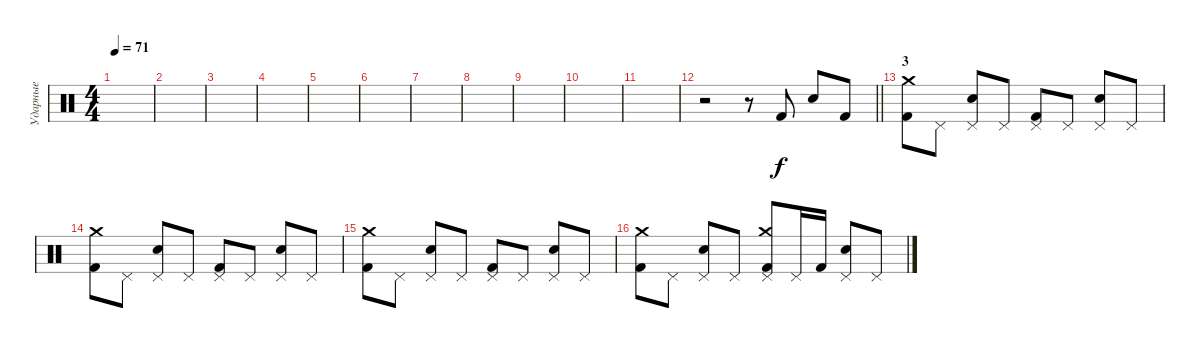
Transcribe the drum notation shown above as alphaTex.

\track ("Ударные" "Ударные") {instrument percussion}
\staff {score}
\articulation defaults
\ts (4 4)
\tempo 71
\clef neutral
\ks c
|
|
|
|
|
|
|
|
|
|
|
\barLineRight lightlight
r.2 r.8 "Kick (hit) 2".8 "Snare (hit) 2".8 "Kick (hit) 2".8 |
\section ("" "3")
("Crash medium (hit)" "Kick (hit) 2").8 "Pedal Hi-Hat (hit)".8 ("Pedal Hi-Hat (hit)" "Snare (hit) 2").8 "Pedal Hi-Hat (hit)".8 ("Pedal Hi-Hat (hit)" "Kick (hit) 2").8 "Pedal Hi-Hat (hit)".8 ("Pedal Hi-Hat (hit)" "Snare (hit) 2").8 "Pedal Hi-Hat (hit)".8 |
("Crash medium (hit)" "Kick (hit) 2").8 "Pedal Hi-Hat (hit)".8 ("Pedal Hi-Hat (hit)" "Snare (hit) 2").8 "Pedal Hi-Hat (hit)".8 ("Pedal Hi-Hat (hit)" "Kick (hit) 2").8 "Pedal Hi-Hat (hit)".8 ("Pedal Hi-Hat (hit)" "Snare (hit) 2").8 "Pedal Hi-Hat (hit)".8 |
("Crash medium (hit)" "Kick (hit) 2").8 "Pedal Hi-Hat (hit)".8 ("Pedal Hi-Hat (hit)" "Snare (hit) 2").8 "Pedal Hi-Hat (hit)".8 ("Pedal Hi-Hat (hit)" "Kick (hit) 2").8 "Pedal Hi-Hat (hit)".8 ("Pedal Hi-Hat (hit)" "Snare (hit) 2").8 "Pedal Hi-Hat (hit)".8 |
("Crash medium (hit)" "Kick (hit) 2").8 "Pedal Hi-Hat (hit)".8 ("Pedal Hi-Hat (hit)" "Snare (hit) 2").8 "Pedal Hi-Hat (hit)".8 ("Crash medium (hit)" "Pedal Hi-Hat (hit)" "Kick (hit) 2").8 "Pedal Hi-Hat (hit)".16 "Kick (hit) 2".16 ("Pedal Hi-Hat (hit)" "Snare (hit) 2").8 "Pedal Hi-Hat (hit)".8
